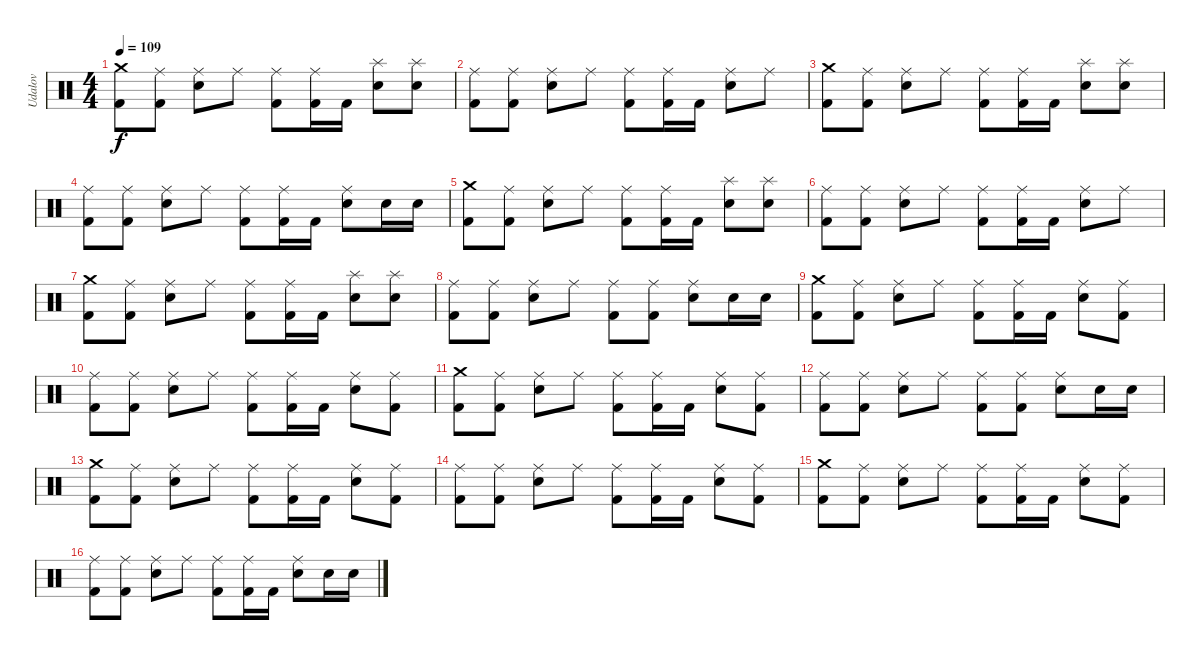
\track ("Udalov" "Udalov") {instrument percussion}
\staff {score}
\articulation defaults
\ts (4 4)
\tempo 109
\clef neutral
\ks c
("Kick (hit) 2" "Crash medium (hit)").8{dy f} ("Ride (middle)" "Kick (hit) 2").8 ("Ride (middle)" "Snare (hit) 2").8 "Ride (middle)".8 ("Ride (middle)" "Kick (hit) 2").8 ("Ride (middle)" "Kick (hit) 2").16 "Kick (hit) 2".16 ("Splash (hit)" "Snare (hit) 2").8 ("Splash (hit)" "Snare (hit) 2").8 |
("Kick (hit) 2" "Ride (middle)").8 ("Ride (middle)" "Kick (hit) 2").8 ("Ride (middle)" "Snare (hit) 2").8 "Ride (middle)".8 ("Ride (middle)" "Kick (hit) 2").8 ("Ride (middle)" "Kick (hit) 2").16 "Kick (hit) 2".16 ("Ride (middle)" "Snare (hit) 2").8 "Ride (middle)".8 |
("Kick (hit) 2" "Crash medium (hit)").8 ("Ride (middle)" "Kick (hit) 2").8 ("Ride (middle)" "Snare (hit) 2").8 "Ride (middle)".8 ("Ride (middle)" "Kick (hit) 2").8 ("Ride (middle)" "Kick (hit) 2").16 "Kick (hit) 2".16 ("Splash (hit)" "Snare (hit) 2").8 ("Splash (hit)" "Snare (hit) 2").8 |
("Kick (hit) 2" "Ride (middle)").8 ("Ride (middle)" "Kick (hit) 2").8 ("Ride (middle)" "Snare (hit) 2").8 "Ride (middle)".8 ("Ride (middle)" "Kick (hit) 2").8 ("Ride (middle)" "Kick (hit) 2").16 "Kick (hit) 2".16 ("Ride (middle)" "Snare (hit) 2").8 "Snare (hit) 2".16 "Snare (hit) 2".16 |
("Kick (hit) 2" "Crash medium (hit)").8 ("Ride (middle)" "Kick (hit) 2").8 ("Ride (middle)" "Snare (hit) 2").8 "Ride (middle)".8 ("Ride (middle)" "Kick (hit) 2").8 ("Ride (middle)" "Kick (hit) 2").16 "Kick (hit) 2".16 ("Splash (hit)" "Snare (hit) 2").8 ("Splash (hit)" "Snare (hit) 2").8 |
("Kick (hit) 2" "Ride (middle)").8 ("Ride (middle)" "Kick (hit) 2").8 ("Ride (middle)" "Snare (hit) 2").8 "Ride (middle)".8 ("Ride (middle)" "Kick (hit) 2").8 ("Ride (middle)" "Kick (hit) 2").16 "Kick (hit) 2".16 ("Ride (middle)" "Snare (hit) 2").8 "Ride (middle)".8 |
("Kick (hit) 2" "Crash medium (hit)").8 ("Ride (middle)" "Kick (hit) 2").8 ("Ride (middle)" "Snare (hit) 2").8 "Ride (middle)".8 ("Ride (middle)" "Kick (hit) 2").8 ("Ride (middle)" "Kick (hit) 2").16 "Kick (hit) 2".16 ("Splash (hit)" "Snare (hit) 2").8 ("Splash (hit)" "Snare (hit) 2").8 |
("Kick (hit) 2" "Ride (middle)").8 ("Ride (middle)" "Kick (hit) 2").8 ("Ride (middle)" "Snare (hit) 2").8 "Ride (middle)".8 ("Kick (hit) 2" "Ride (middle)").8 ("Kick (hit) 2" "Ride (middle)").8 ("Snare (hit) 2" "Ride (middle)").8 "Snare (hit) 2".16 "Snare (hit) 2".16 |
("Kick (hit) 2" "Crash medium (hit)").8 ("Ride (middle)" "Kick (hit) 2").8 ("Ride (middle)" "Snare (hit) 2").8 "Ride (middle)".8 ("Ride (middle)" "Kick (hit) 2").8 ("Ride (middle)" "Kick (hit) 2").16 "Kick (hit) 2".16 ("Ride (middle)" "Snare (hit) 2").8 ("Ride (middle)" "Kick (hit) 2").8 |
("Kick (hit) 2" "Ride (middle)").8 ("Kick (hit) 2" "Ride (middle)").8 ("Snare (hit) 2" "Ride (middle)").8 "Ride (middle)".8 ("Kick (hit) 2" "Ride (middle)").8 ("Kick (hit) 2" "Ride (middle)").16 "Kick (hit) 2".16 ("Snare (hit) 2" "Ride (middle)").8 ("Kick (hit) 2" "Ride (middle)").8 |
("Kick (hit) 2" "Crash medium (hit)").8 ("Ride (middle)" "Kick (hit) 2").8 ("Ride (middle)" "Snare (hit) 2").8 "Ride (middle)".8 ("Ride (middle)" "Kick (hit) 2").8 ("Ride (middle)" "Kick (hit) 2").16 "Kick (hit) 2".16 ("Ride (middle)" "Snare (hit) 2").8 ("Ride (middle)" "Kick (hit) 2").8 |
("Kick (hit) 2" "Ride (middle)").8 ("Kick (hit) 2" "Ride (middle)").8 ("Snare (hit) 2" "Ride (middle)").8 "Ride (middle)".8 ("Kick (hit) 2" "Ride (middle)").8 ("Kick (hit) 2" "Ride (middle)").8 ("Snare (hit) 2" "Ride (middle)").8 "Snare (hit) 2".16 "Snare (hit) 2".16 |
("Kick (hit) 2" "Crash medium (hit)").8 ("Ride (middle)" "Kick (hit) 2").8 ("Ride (middle)" "Snare (hit) 2").8 "Ride (middle)".8 ("Ride (middle)" "Kick (hit) 2").8 ("Ride (middle)" "Kick (hit) 2").16 "Kick (hit) 2".16 ("Ride (middle)" "Snare (hit) 2").8 ("Ride (middle)" "Kick (hit) 2").8 |
("Kick (hit) 2" "Ride (middle)").8 ("Kick (hit) 2" "Ride (middle)").8 ("Snare (hit) 2" "Ride (middle)").8 "Ride (middle)".8 ("Kick (hit) 2" "Ride (middle)").8 ("Kick (hit) 2" "Ride (middle)").16 "Kick (hit) 2".16 ("Snare (hit) 2" "Ride (middle)").8 ("Kick (hit) 2" "Ride (middle)").8 |
("Kick (hit) 2" "Crash medium (hit)").8 ("Ride (middle)" "Kick (hit) 2").8 ("Ride (middle)" "Snare (hit) 2").8 "Ride (middle)".8 ("Ride (middle)" "Kick (hit) 2").8 ("Ride (middle)" "Kick (hit) 2").16 "Kick (hit) 2".16 ("Ride (middle)" "Snare (hit) 2").8 ("Ride (middle)" "Kick (hit) 2").8 |
("Kick (hit) 2" "Ride (middle)").8 ("Kick (hit) 2" "Ride (middle)").8 ("Snare (hit) 2" "Ride (middle)").8 "Ride (middle)".8 ("Kick (hit) 2" "Ride (middle)").8 ("Kick (hit) 2" "Ride (middle)").16 "Kick (hit) 2".16 ("Snare (hit) 2" "Ride (middle)").8 "Snare (hit) 2".16 "Snare (hit) 2".16
